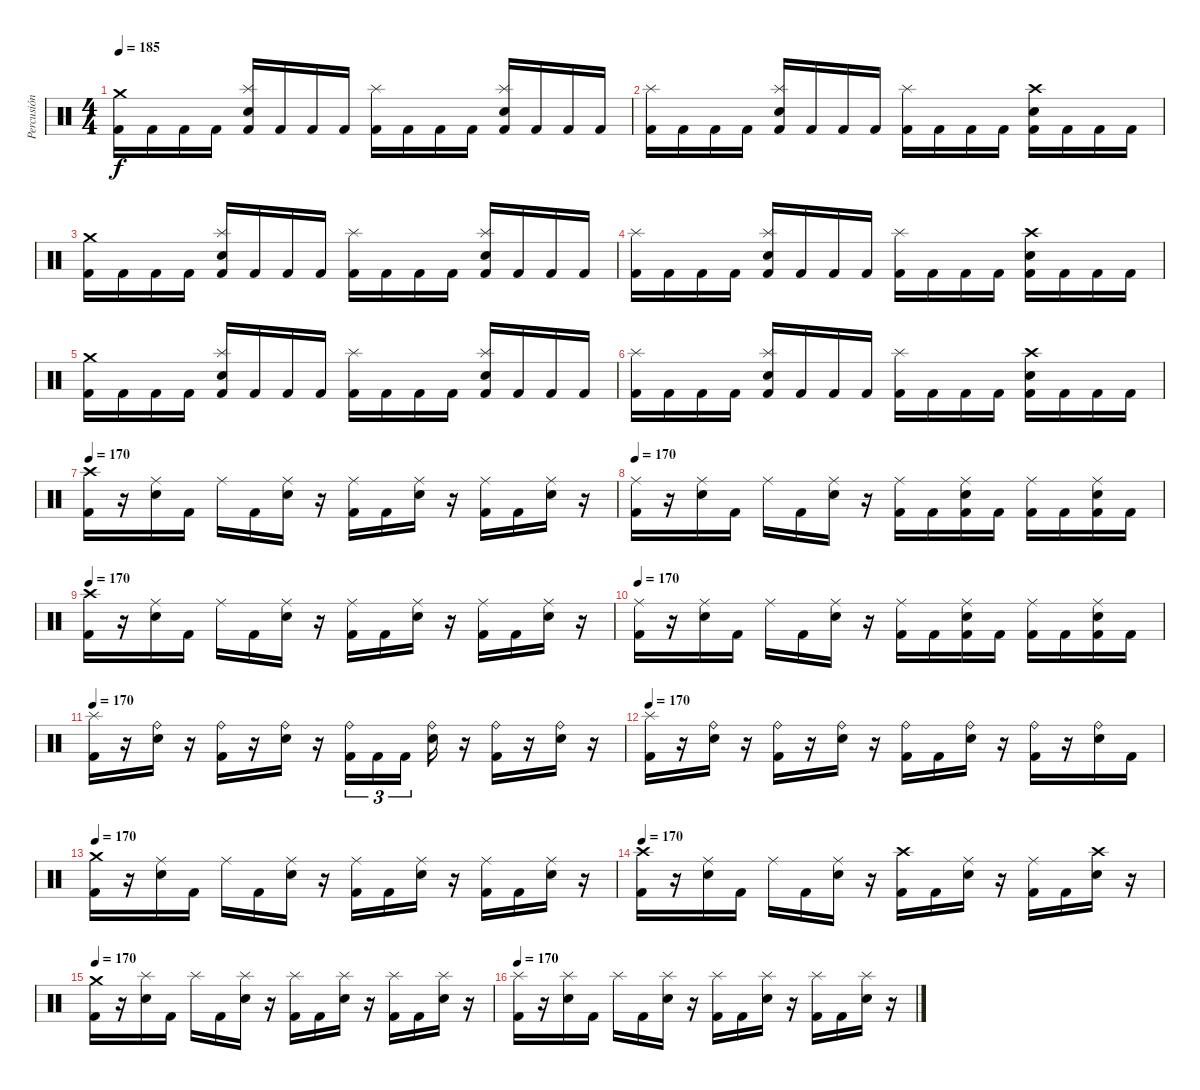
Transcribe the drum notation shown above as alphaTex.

\track ("Percusión" "Percusión") {instrument percussion}
\staff {score}
\articulation defaults
\ts (4 4)
\tempo 185
\clef neutral
\ks c
("Crash medium (hit)" "Kick (hit) 2").16{dy f} "Kick (hit) 2".16 "Kick (hit) 2".16 "Kick (hit) 2".16 ("Splash (hit)" "Snare (hit) 2" "Kick (hit) 2").16 "Kick (hit) 2".16 "Kick (hit) 2".16 "Kick (hit) 2".16 ("Splash (hit)" "Kick (hit) 2").16 "Kick (hit) 2".16 "Kick (hit) 2".16 "Kick (hit) 2".16 ("Splash (hit)" "Snare (hit) 2" "Kick (hit) 2").16 "Kick (hit) 2".16 "Kick (hit) 2".16 "Kick (hit) 2".16 |
("Splash (hit)" "Kick (hit) 2").16 "Kick (hit) 2".16 "Kick (hit) 2".16 "Kick (hit) 2".16 ("Splash (hit)" "Snare (hit) 2" "Kick (hit) 2").16 "Kick (hit) 2".16 "Kick (hit) 2".16 "Kick (hit) 2".16 ("Splash (hit)" "Kick (hit) 2").16 "Kick (hit) 2".16 "Kick (hit) 2".16 "Kick (hit) 2".16 ("Crash high (hit)" "Snare (hit) 2" "Kick (hit) 2").16 "Kick (hit) 2".16 "Kick (hit) 2".16 "Kick (hit) 2".16 |
("Crash medium (hit)" "Kick (hit) 2").16 "Kick (hit) 2".16 "Kick (hit) 2".16 "Kick (hit) 2".16 ("Splash (hit)" "Snare (hit) 2" "Kick (hit) 2").16 "Kick (hit) 2".16 "Kick (hit) 2".16 "Kick (hit) 2".16 ("Splash (hit)" "Kick (hit) 2").16 "Kick (hit) 2".16 "Kick (hit) 2".16 "Kick (hit) 2".16 ("Splash (hit)" "Snare (hit) 2" "Kick (hit) 2").16 "Kick (hit) 2".16 "Kick (hit) 2".16 "Kick (hit) 2".16 |
("Splash (hit)" "Kick (hit) 2").16 "Kick (hit) 2".16 "Kick (hit) 2".16 "Kick (hit) 2".16 ("Splash (hit)" "Snare (hit) 2" "Kick (hit) 2").16 "Kick (hit) 2".16 "Kick (hit) 2".16 "Kick (hit) 2".16 ("Splash (hit)" "Kick (hit) 2").16 "Kick (hit) 2".16 "Kick (hit) 2".16 "Kick (hit) 2".16 ("Crash high (hit)" "Snare (hit) 2" "Kick (hit) 2").16 "Kick (hit) 2".16 "Kick (hit) 2".16 "Kick (hit) 2".16 |
("Crash medium (hit)" "Kick (hit) 2").16 "Kick (hit) 2".16 "Kick (hit) 2".16 "Kick (hit) 2".16 ("Splash (hit)" "Snare (hit) 2" "Kick (hit) 2").16 "Kick (hit) 2".16 "Kick (hit) 2".16 "Kick (hit) 2".16 ("Splash (hit)" "Kick (hit) 2").16 "Kick (hit) 2".16 "Kick (hit) 2".16 "Kick (hit) 2".16 ("Splash (hit)" "Snare (hit) 2" "Kick (hit) 2").16 "Kick (hit) 2".16 "Kick (hit) 2".16 "Kick (hit) 2".16 |
("Splash (hit)" "Kick (hit) 2").16 "Kick (hit) 2".16 "Kick (hit) 2".16 "Kick (hit) 2".16 ("Splash (hit)" "Snare (hit) 2" "Kick (hit) 2").16 "Kick (hit) 2".16 "Kick (hit) 2".16 "Kick (hit) 2".16 ("Splash (hit)" "Kick (hit) 2").16 "Kick (hit) 2".16 "Kick (hit) 2".16 "Kick (hit) 2".16 ("Crash high (hit)" "Snare (hit) 2" "Kick (hit) 2").16 "Kick (hit) 2".16 "Kick (hit) 2".16 "Kick (hit) 2".16 |
\section ("" "")
\tempo 170
("Crash high (hit)" "Kick (hit) 2").16 r.16 ("Ride (middle)" "Snare (hit) 2").16 "Kick (hit) 2".16 "Ride (middle)".16 "Kick (hit) 2".16 ("Ride (middle)" "Snare (hit) 2").16 r.16 ("Ride (middle)" "Kick (hit) 2").16 "Kick (hit) 2".16 ("Ride (middle)" "Snare (hit) 2").16 r.16 ("Ride (middle)" "Kick (hit) 2").16 "Kick (hit) 2".16 ("Ride (middle)" "Snare (hit) 2").16 r.16 |
\tempo 170
("Ride (middle)" "Kick (hit) 2").16 r.16 ("Ride (middle)" "Snare (hit) 2").16 "Kick (hit) 2".16 "Ride (middle)".16 "Kick (hit) 2".16 ("Ride (middle)" "Snare (hit) 2").16 r.16 ("Ride (middle)" "Kick (hit) 2").16 "Kick (hit) 2".16 ("Ride (middle)" "Snare (hit) 2" "Kick (hit) 2").16 "Kick (hit) 2".16 ("Ride (middle)" "Kick (hit) 2").16 "Kick (hit) 2".16 ("Ride (middle)" "Snare (hit) 2" "Kick (hit) 2").16 "Kick (hit) 2".16 |
\tempo 170
("Crash high (hit)" "Kick (hit) 2").16 r.16 ("Ride (middle)" "Snare (hit) 2").16 "Kick (hit) 2".16 "Ride (middle)".16 "Kick (hit) 2".16 ("Ride (middle)" "Snare (hit) 2").16 r.16 ("Ride (middle)" "Kick (hit) 2").16 "Kick (hit) 2".16 ("Ride (middle)" "Snare (hit) 2").16 r.16 ("Ride (middle)" "Kick (hit) 2").16 "Kick (hit) 2".16 ("Ride (middle)" "Snare (hit) 2").16 r.16 |
\tempo 170
("Ride (middle)" "Kick (hit) 2").16 r.16 ("Ride (middle)" "Snare (hit) 2").16 "Kick (hit) 2".16 "Ride (middle)".16 "Kick (hit) 2".16 ("Ride (middle)" "Snare (hit) 2").16 r.16 ("Ride (middle)" "Kick (hit) 2").16 "Kick (hit) 2".16 ("Ride (middle)" "Snare (hit) 2" "Kick (hit) 2").16 "Kick (hit) 2".16 ("Ride (middle)" "Kick (hit) 2").16 "Kick (hit) 2".16 ("Ride (middle)" "Snare (hit) 2" "Kick (hit) 2").16 "Kick (hit) 2".16 |
\tempo 170
("Splash (hit)" "Kick (hit) 2").16 r.16 ("Ride (bell)" "Snare (hit) 2").16 r.16 ("Ride (bell)" "Kick (hit) 2").16 r.16 ("Ride (bell)" "Snare (hit) 2").16 r.16 ("Ride (bell)" "Kick (hit) 2").16{tu (3 2)} "Kick (hit) 2".16{tu (3 2)} "Kick (hit) 2".16{tu (3 2)} ("Ride (bell)" "Snare (hit) 2").16 r.16 ("Ride (bell)" "Kick (hit) 2").16 r.16 ("Ride (bell)" "Snare (hit) 2").16 r.16 |
\tempo 170
("Splash (hit)" "Kick (hit) 2").16 r.16 ("Ride (bell)" "Snare (hit) 2").16 r.16 ("Ride (bell)" "Kick (hit) 2").16 r.16 ("Ride (bell)" "Snare (hit) 2").16 r.16 ("Ride (bell)" "Kick (hit) 2").16 "Kick (hit) 2".16 ("Ride (bell)" "Snare (hit) 2").16 r.16 ("Ride (bell)" "Kick (hit) 2").16 r.16 ("Ride (bell)" "Snare (hit) 2").16 "Kick (hit) 2".16 |
\tempo 170
("Crash medium (hit)" "Kick (hit) 2").16 r.16 ("Ride (middle)" "Snare (hit) 2").16 "Kick (hit) 2".16 "Ride (middle)".16 "Kick (hit) 2".16 ("Ride (middle)" "Snare (hit) 2").16 r.16 ("Ride (middle)" "Kick (hit) 2").16 "Kick (hit) 2".16 ("Ride (middle)" "Snare (hit) 2").16 r.16 ("Ride (middle)" "Kick (hit) 2").16 "Kick (hit) 2".16 ("Ride (middle)" "Snare (hit) 2").16 r.16 |
\tempo 170
("Crash high (hit)" "Kick (hit) 2").16 r.16 ("Ride (middle)" "Snare (hit) 2").16 "Kick (hit) 2".16 "Ride (middle)".16 "Kick (hit) 2".16 ("Ride (middle)" "Snare (hit) 2").16 r.16 ("Crash high (hit)" "Kick (hit) 2").16 "Kick (hit) 2".16 ("Ride (middle)" "Snare (hit) 2").16 r.16 ("Ride (middle)" "Kick (hit) 2").16 "Kick (hit) 2".16 ("Crash high (hit)" "Snare (hit) 2").16 r.16 |
\section ("" "")
\tempo 170
("Crash medium (hit)" "Kick (hit) 2").16 r.16 ("Splash (hit)" "Snare (hit) 2").16 "Kick (hit) 2".16 "Splash (hit)".16 "Kick (hit) 2".16 ("Splash (hit)" "Snare (hit) 2").16 r.16 ("Splash (hit)" "Kick (hit) 2").16 "Kick (hit) 2".16 ("Splash (hit)" "Snare (hit) 2").16 r.16 ("Splash (hit)" "Kick (hit) 2").16 "Kick (hit) 2".16 ("Splash (hit)" "Snare (hit) 2").16 r.16 |
\tempo 170
("Splash (hit)" "Kick (hit) 2").16 r.16 ("Splash (hit)" "Snare (hit) 2").16 "Kick (hit) 2".16 "Splash (hit)".16 "Kick (hit) 2".16 ("Splash (hit)" "Snare (hit) 2").16 r.16 ("Splash (hit)" "Kick (hit) 2").16 "Kick (hit) 2".16 ("Splash (hit)" "Snare (hit) 2").16 r.16 ("Splash (hit)" "Kick (hit) 2").16 "Kick (hit) 2".16 ("Splash (hit)" "Snare (hit) 2").16 r.16
